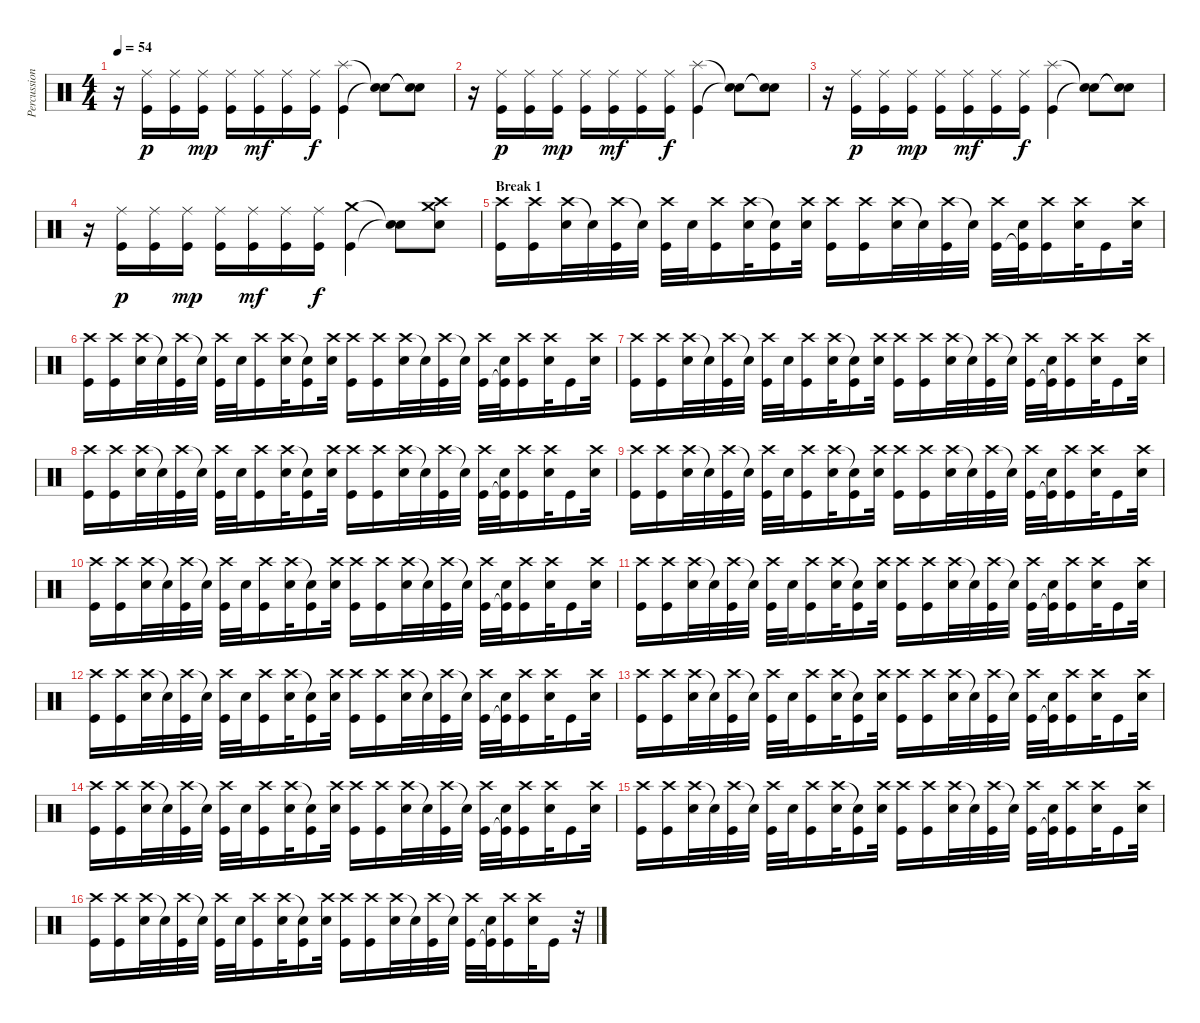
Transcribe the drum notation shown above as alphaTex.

\track ("Percussions" "Percussion") {instrument percussion}
\staff {score}
\articulation defaults
\ts (4 4)
\tempo 54
\clef neutral
\ks c
r.16{dy f} ("Ride (middle)" "Kick (hit)").16{dy p} ("Ride (middle)" "Kick (hit)").16 ("Ride (middle)" "Kick (hit)").16{dy mp} ("Ride (middle)" "Kick (hit)").16 ("Ride (middle)" "Kick (hit)").16{dy mf} ("Ride (middle)" "Kick (hit)").16 ("Ride (middle)" "Kick (hit)").16{dy f} ("Splash (hit)" "Kick (hit)").4 ("Snare (hit)"{t} "Snare (hit)"{t}).8 ("Snare (hit)"{t} "Snare (hit)"{t}).8 |
r.16 ("Ride (middle)" "Kick (hit)").16{dy p} ("Ride (middle)" "Kick (hit)").16 ("Ride (middle)" "Kick (hit)").16{dy mp} ("Ride (middle)" "Kick (hit)").16 ("Ride (middle)" "Kick (hit)").16{dy mf} ("Ride (middle)" "Kick (hit)").16 ("Ride (middle)" "Kick (hit)").16{dy f} ("Splash (hit)" "Kick (hit)").4 ("Snare (hit)"{t} "Snare (hit)"{t}).8 ("Snare (hit)"{t} "Snare (hit)"{t}).8 |
r.16 ("Ride (middle)" "Kick (hit)").16{dy p} ("Ride (middle)" "Kick (hit)").16 ("Ride (middle)" "Kick (hit)").16{dy mp} ("Ride (middle)" "Kick (hit)").16 ("Ride (middle)" "Kick (hit)").16{dy mf} ("Ride (middle)" "Kick (hit)").16 ("Ride (middle)" "Kick (hit)").16{dy f} ("Splash (hit)" "Kick (hit)").4 ("Snare (hit)"{t} "Snare (hit)"{t}).8 ("Snare (hit)"{t} "Snare (hit)"{t}).8 |
r.16 ("Ride (middle)" "Kick (hit)").16{dy p} ("Ride (middle)" "Kick (hit)").16 ("Ride (middle)" "Kick (hit)").16{dy mp} ("Ride (middle)" "Kick (hit)").16 ("Ride (middle)" "Kick (hit)").16{dy mf} ("Ride (middle)" "Kick (hit)").16 ("Ride (middle)" "Kick (hit)").16{dy f} ("Crash medium (hit)" "Kick (hit)").4 ("Snare (hit)"{t} "Snare (hit)"{t}).8 ("Crash high (hit)" "Crash medium (hit)" "Snare (hit)").8 |
\section ("" "Break 1")
("Crash high (hit)" "Kick (hit)").16{volume 16} ("Crash high (hit)" "Kick (hit)").16 ("Crash high (hit)" "Electric Snare (hit)").32 "Snare (hit)"{t}.32 ("Crash high (hit)" "Kick (hit)").32 "Snare (hit)"{t}.32 ("Crash high (hit)" "Kick (hit)").32 "Electric Snare (hit)".32 ("Crash high (hit)" "Kick (hit)").16 ("Crash high (hit)" "Electric Snare (hit)").32 ("Snare (hit)"{t} "Kick (hit)").16 ("Crash high (hit)" "Electric Snare (hit)").32 ("Crash high (hit)" "Kick (hit)").16 ("Crash high (hit)" "Kick (hit)").16 ("Crash high (hit)" "Electric Snare (hit)").32 "Snare (hit)"{t}.32 ("Crash high (hit)" "Kick (hit)").32 "Snare (hit)"{t}.32 ("Crash high (hit)" "Kick (hit)").32 ("Electric Snare (hit)" "Kick (hit)"{t}).32 ("Crash high (hit)" "Kick (hit)").16 ("Crash high (hit)" "Electric Snare (hit)").32 "Kick (hit)".16 ("Crash high (hit)" "Electric Snare (hit)").32 |
("Crash high (hit)" "Kick (hit)").16 ("Crash high (hit)" "Kick (hit)").16 ("Crash high (hit)" "Electric Snare (hit)").32 "Snare (hit)"{t}.32 ("Crash high (hit)" "Kick (hit)").32 "Snare (hit)"{t}.32 ("Crash high (hit)" "Kick (hit)").32 "Electric Snare (hit)".32 ("Crash high (hit)" "Kick (hit)").16 ("Crash high (hit)" "Electric Snare (hit)").32 ("Snare (hit)"{t} "Kick (hit)").16 ("Crash high (hit)" "Electric Snare (hit)").32 ("Crash high (hit)" "Kick (hit)").16 ("Crash high (hit)" "Kick (hit)").16 ("Crash high (hit)" "Electric Snare (hit)").32 "Snare (hit)"{t}.32 ("Crash high (hit)" "Kick (hit)").32 "Snare (hit)"{t}.32 ("Crash high (hit)" "Kick (hit)").32 ("Electric Snare (hit)" "Kick (hit)"{t}).32 ("Crash high (hit)" "Kick (hit)").16 ("Crash high (hit)" "Electric Snare (hit)").32 "Kick (hit)".16 ("Crash high (hit)" "Electric Snare (hit)").32 |
("Crash high (hit)" "Kick (hit)").16 ("Crash high (hit)" "Kick (hit)").16 ("Crash high (hit)" "Electric Snare (hit)").32 "Snare (hit)"{t}.32 ("Crash high (hit)" "Kick (hit)").32 "Snare (hit)"{t}.32 ("Crash high (hit)" "Kick (hit)").32 "Electric Snare (hit)".32 ("Crash high (hit)" "Kick (hit)").16 ("Crash high (hit)" "Electric Snare (hit)").32 ("Snare (hit)"{t} "Kick (hit)").16 ("Crash high (hit)" "Electric Snare (hit)").32 ("Crash high (hit)" "Kick (hit)").16 ("Crash high (hit)" "Kick (hit)").16 ("Crash high (hit)" "Electric Snare (hit)").32 "Snare (hit)"{t}.32 ("Crash high (hit)" "Kick (hit)").32 "Snare (hit)"{t}.32 ("Crash high (hit)" "Kick (hit)").32 ("Electric Snare (hit)" "Kick (hit)"{t}).32 ("Crash high (hit)" "Kick (hit)").16 ("Crash high (hit)" "Electric Snare (hit)").32 "Kick (hit)".16 ("Crash high (hit)" "Electric Snare (hit)").32 |
("Crash high (hit)" "Kick (hit)").16 ("Crash high (hit)" "Kick (hit)").16 ("Crash high (hit)" "Electric Snare (hit)").32 "Snare (hit)"{t}.32 ("Crash high (hit)" "Kick (hit)").32 "Snare (hit)"{t}.32 ("Crash high (hit)" "Kick (hit)").32 "Electric Snare (hit)".32 ("Crash high (hit)" "Kick (hit)").16 ("Crash high (hit)" "Electric Snare (hit)").32 ("Snare (hit)"{t} "Kick (hit)").16 ("Crash high (hit)" "Electric Snare (hit)").32 ("Crash high (hit)" "Kick (hit)").16 ("Crash high (hit)" "Kick (hit)").16 ("Crash high (hit)" "Electric Snare (hit)").32 "Snare (hit)"{t}.32 ("Crash high (hit)" "Kick (hit)").32 "Snare (hit)"{t}.32 ("Crash high (hit)" "Kick (hit)").32 ("Electric Snare (hit)" "Kick (hit)"{t}).32 ("Crash high (hit)" "Kick (hit)").16 ("Crash high (hit)" "Electric Snare (hit)").32 "Kick (hit)".16 ("Crash high (hit)" "Electric Snare (hit)").32 |
("Crash high (hit)" "Kick (hit)").16 ("Crash high (hit)" "Kick (hit)").16 ("Crash high (hit)" "Electric Snare (hit)").32 "Snare (hit)"{t}.32 ("Crash high (hit)" "Kick (hit)").32 "Snare (hit)"{t}.32 ("Crash high (hit)" "Kick (hit)").32 "Electric Snare (hit)".32 ("Crash high (hit)" "Kick (hit)").16 ("Crash high (hit)" "Electric Snare (hit)").32 ("Snare (hit)"{t} "Kick (hit)").16 ("Crash high (hit)" "Electric Snare (hit)").32 ("Crash high (hit)" "Kick (hit)").16 ("Crash high (hit)" "Kick (hit)").16 ("Crash high (hit)" "Electric Snare (hit)").32 "Snare (hit)"{t}.32 ("Crash high (hit)" "Kick (hit)").32 "Snare (hit)"{t}.32 ("Crash high (hit)" "Kick (hit)").32 ("Electric Snare (hit)" "Kick (hit)"{t}).32 ("Crash high (hit)" "Kick (hit)").16 ("Crash high (hit)" "Electric Snare (hit)").32 "Kick (hit)".16 ("Crash high (hit)" "Electric Snare (hit)").32 |
("Crash high (hit)" "Kick (hit)").16 ("Crash high (hit)" "Kick (hit)").16 ("Crash high (hit)" "Electric Snare (hit)").32 "Snare (hit)"{t}.32 ("Crash high (hit)" "Kick (hit)").32 "Snare (hit)"{t}.32 ("Crash high (hit)" "Kick (hit)").32 "Electric Snare (hit)".32 ("Crash high (hit)" "Kick (hit)").16 ("Crash high (hit)" "Electric Snare (hit)").32 ("Snare (hit)"{t} "Kick (hit)").16 ("Crash high (hit)" "Electric Snare (hit)").32 ("Crash high (hit)" "Kick (hit)").16 ("Crash high (hit)" "Kick (hit)").16 ("Crash high (hit)" "Electric Snare (hit)").32 "Snare (hit)"{t}.32 ("Crash high (hit)" "Kick (hit)").32 "Snare (hit)"{t}.32 ("Crash high (hit)" "Kick (hit)").32 ("Electric Snare (hit)" "Kick (hit)"{t}).32 ("Crash high (hit)" "Kick (hit)").16 ("Crash high (hit)" "Electric Snare (hit)").32 "Kick (hit)".16 ("Crash high (hit)" "Electric Snare (hit)").32 |
("Crash high (hit)" "Kick (hit)").16 ("Crash high (hit)" "Kick (hit)").16 ("Crash high (hit)" "Electric Snare (hit)").32 "Snare (hit)"{t}.32 ("Crash high (hit)" "Kick (hit)").32 "Snare (hit)"{t}.32 ("Crash high (hit)" "Kick (hit)").32 "Electric Snare (hit)".32 ("Crash high (hit)" "Kick (hit)").16 ("Crash high (hit)" "Electric Snare (hit)").32 ("Snare (hit)"{t} "Kick (hit)").16 ("Crash high (hit)" "Electric Snare (hit)").32 ("Crash high (hit)" "Kick (hit)").16 ("Crash high (hit)" "Kick (hit)").16 ("Crash high (hit)" "Electric Snare (hit)").32 "Snare (hit)"{t}.32 ("Crash high (hit)" "Kick (hit)").32 "Snare (hit)"{t}.32 ("Crash high (hit)" "Kick (hit)").32 ("Electric Snare (hit)" "Kick (hit)"{t}).32 ("Crash high (hit)" "Kick (hit)").16 ("Crash high (hit)" "Electric Snare (hit)").32 "Kick (hit)".16 ("Crash high (hit)" "Electric Snare (hit)").32 |
("Crash high (hit)" "Kick (hit)").16 ("Crash high (hit)" "Kick (hit)").16 ("Crash high (hit)" "Electric Snare (hit)").32 "Snare (hit)"{t}.32 ("Crash high (hit)" "Kick (hit)").32 "Snare (hit)"{t}.32 ("Crash high (hit)" "Kick (hit)").32 "Electric Snare (hit)".32 ("Crash high (hit)" "Kick (hit)").16 ("Crash high (hit)" "Electric Snare (hit)").32 ("Snare (hit)"{t} "Kick (hit)").16 ("Crash high (hit)" "Electric Snare (hit)").32 ("Crash high (hit)" "Kick (hit)").16 ("Crash high (hit)" "Kick (hit)").16 ("Crash high (hit)" "Electric Snare (hit)").32 "Snare (hit)"{t}.32 ("Crash high (hit)" "Kick (hit)").32 "Snare (hit)"{t}.32 ("Crash high (hit)" "Kick (hit)").32 ("Electric Snare (hit)" "Kick (hit)"{t}).32 ("Crash high (hit)" "Kick (hit)").16 ("Crash high (hit)" "Electric Snare (hit)").32 "Kick (hit)".16 ("Crash high (hit)" "Electric Snare (hit)").32 |
("Crash high (hit)" "Kick (hit)").16 ("Crash high (hit)" "Kick (hit)").16 ("Crash high (hit)" "Electric Snare (hit)").32 "Snare (hit)"{t}.32 ("Crash high (hit)" "Kick (hit)").32 "Snare (hit)"{t}.32 ("Crash high (hit)" "Kick (hit)").32 "Electric Snare (hit)".32 ("Crash high (hit)" "Kick (hit)").16 ("Crash high (hit)" "Electric Snare (hit)").32 ("Snare (hit)"{t} "Kick (hit)").16 ("Crash high (hit)" "Electric Snare (hit)").32 ("Crash high (hit)" "Kick (hit)").16 ("Crash high (hit)" "Kick (hit)").16 ("Crash high (hit)" "Electric Snare (hit)").32 "Snare (hit)"{t}.32 ("Crash high (hit)" "Kick (hit)").32 "Snare (hit)"{t}.32 ("Crash high (hit)" "Kick (hit)").32 ("Electric Snare (hit)" "Kick (hit)"{t}).32 ("Crash high (hit)" "Kick (hit)").16 ("Crash high (hit)" "Electric Snare (hit)").32 "Kick (hit)".16 ("Crash high (hit)" "Electric Snare (hit)").32 |
("Crash high (hit)" "Kick (hit)").16 ("Crash high (hit)" "Kick (hit)").16 ("Crash high (hit)" "Electric Snare (hit)").32 "Snare (hit)"{t}.32 ("Crash high (hit)" "Kick (hit)").32 "Snare (hit)"{t}.32 ("Crash high (hit)" "Kick (hit)").32 "Electric Snare (hit)".32 ("Crash high (hit)" "Kick (hit)").16 ("Crash high (hit)" "Electric Snare (hit)").32 ("Snare (hit)"{t} "Kick (hit)").16 ("Crash high (hit)" "Electric Snare (hit)").32 ("Crash high (hit)" "Kick (hit)").16 ("Crash high (hit)" "Kick (hit)").16 ("Crash high (hit)" "Electric Snare (hit)").32 "Snare (hit)"{t}.32 ("Crash high (hit)" "Kick (hit)").32 "Snare (hit)"{t}.32 ("Crash high (hit)" "Kick (hit)").32 ("Electric Snare (hit)" "Kick (hit)"{t}).32 ("Crash high (hit)" "Kick (hit)").16 ("Crash high (hit)" "Electric Snare (hit)").32 "Kick (hit)".16 ("Crash high (hit)" "Electric Snare (hit)").32 |
("Crash high (hit)" "Kick (hit)").16 ("Crash high (hit)" "Kick (hit)").16 ("Crash high (hit)" "Electric Snare (hit)").32 "Snare (hit)"{t}.32 ("Crash high (hit)" "Kick (hit)").32 "Snare (hit)"{t}.32 ("Crash high (hit)" "Kick (hit)").32 "Electric Snare (hit)".32 ("Crash high (hit)" "Kick (hit)").16 ("Crash high (hit)" "Electric Snare (hit)").32 ("Snare (hit)"{t} "Kick (hit)").16 ("Crash high (hit)" "Electric Snare (hit)").32 ("Crash high (hit)" "Kick (hit)").16 ("Crash high (hit)" "Kick (hit)").16 ("Crash high (hit)" "Electric Snare (hit)").32 "Snare (hit)"{t}.32 ("Crash high (hit)" "Kick (hit)").32 "Snare (hit)"{t}.32 ("Crash high (hit)" "Kick (hit)").32 ("Electric Snare (hit)" "Kick (hit)"{t}).32 ("Crash high (hit)" "Kick (hit)").16 ("Crash high (hit)" "Electric Snare (hit)").32 "Kick (hit)".16 ("Crash high (hit)" "Electric Snare (hit)").32 |
("Crash high (hit)" "Kick (hit)").16 ("Crash high (hit)" "Kick (hit)").16 ("Crash high (hit)" "Electric Snare (hit)").32 "Snare (hit)"{t}.32 ("Crash high (hit)" "Kick (hit)").32 "Snare (hit)"{t}.32 ("Crash high (hit)" "Kick (hit)").32 "Electric Snare (hit)".32 ("Crash high (hit)" "Kick (hit)").16 ("Crash high (hit)" "Electric Snare (hit)").32 ("Snare (hit)"{t} "Kick (hit)").16 ("Crash high (hit)" "Electric Snare (hit)").32 ("Crash high (hit)" "Kick (hit)").16 ("Crash high (hit)" "Kick (hit)").16 ("Crash high (hit)" "Electric Snare (hit)").32 "Snare (hit)"{t}.32 ("Crash high (hit)" "Kick (hit)").32 "Snare (hit)"{t}.32 ("Crash high (hit)" "Kick (hit)").32 ("Electric Snare (hit)" "Kick (hit)"{t}).32 ("Crash high (hit)" "Kick (hit)").16 ("Crash high (hit)" "Electric Snare (hit)").32 "Kick (hit)".16 r.32
